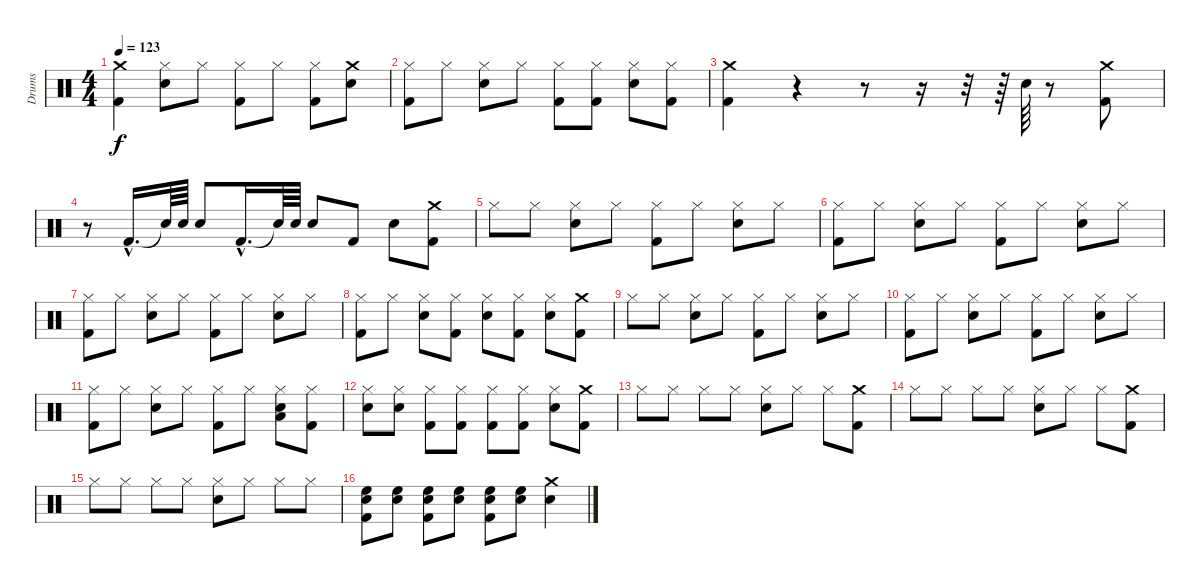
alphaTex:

\track ("Drums" "Drums") {instrument percussion}
\staff {score}
\articulation defaults
\ts (4 4)
\tempo 123
\clef neutral
\ks c
("Kick (hit) 2" "Crash medium (hit)").4{dy f} ("Hi-Hat (closed)" "Snare (hit) 2").8 "Hi-Hat (closed)".8 ("Kick (hit) 2" "Hi-Hat (closed)").8 "Hi-Hat (closed)".8 ("Kick (hit) 2" "Hi-Hat (closed)").8 ("Crash medium (hit)" "Snare (hit) 2").8 |
("Kick (hit) 2" "Hi-Hat (closed)").8 "Hi-Hat (closed)".8 ("Snare (hit) 2" "Hi-Hat (closed)").8 "Hi-Hat (closed)".8 ("Kick (hit) 2" "Hi-Hat (closed)").8 ("Kick (hit) 2" "Hi-Hat (closed)").8 ("Snare (hit) 2" "Hi-Hat (closed)").8 ("Kick (hit) 2" "Hi-Hat (closed)").8 |
("Kick (hit) 2" "Crash medium (hit)").4 r.4 r.8 r.16 r.32 r.64 "Snare (hit) 2".64 r.8 ("Kick (hit) 2" "Crash medium (hit)").8 |
r.8 "Kick (hit) 2"{hac}.16{d} "Snare (hit)"{t}.64 "Snare (hit) 2".64 "Snare (hit) 2".8 "Kick (hit) 2"{hac}.16{d} "Snare (hit)"{t}.64 "Snare (hit) 2".64 "Snare (hit) 2".8 "Kick (hit) 2".8 "Snare (hit) 2".8 ("Crash medium (hit)" "Kick (hit) 2").8 |
"Hi-Hat (closed)".8 "Hi-Hat (closed)".8 ("Snare (hit) 2" "Hi-Hat (closed)").8 "Hi-Hat (closed)".8 ("Kick (hit) 2" "Hi-Hat (closed)").8 "Hi-Hat (closed)".8 ("Snare (hit) 2" "Hi-Hat (closed)").8 "Hi-Hat (closed)".8 |
("Kick (hit) 2" "Hi-Hat (closed)").8 "Hi-Hat (closed)".8 ("Snare (hit) 2" "Hi-Hat (closed)").8 "Hi-Hat (closed)".8 ("Kick (hit) 2" "Hi-Hat (closed)").8 "Hi-Hat (closed)".8 ("Snare (hit) 2" "Hi-Hat (closed)").8 "Hi-Hat (closed)".8 |
("Kick (hit) 2" "Hi-Hat (closed)").8 "Hi-Hat (closed)".8 ("Snare (hit) 2" "Hi-Hat (closed)").8 "Hi-Hat (closed)".8 ("Kick (hit) 2" "Hi-Hat (closed)").8 "Hi-Hat (closed)".8 ("Snare (hit) 2" "Hi-Hat (closed)").8 "Hi-Hat (closed)".8 |
("Hi-Hat (closed)" "Kick (hit) 2").8 "Hi-Hat (closed)".8 ("Snare (hit) 2" "Hi-Hat (closed)").8 ("Kick (hit) 2" "Hi-Hat (closed)").8 ("Snare (hit) 2" "Hi-Hat (closed)").8 ("Hi-Hat (closed)" "Kick (hit) 2").8 ("Snare (hit) 2" "Hi-Hat (closed)").8 ("Crash medium (hit)" "Kick (hit) 2").8 |
"Hi-Hat (closed)".8 "Hi-Hat (closed)".8 ("Snare (hit) 2" "Hi-Hat (closed)").8 "Hi-Hat (closed)".8 ("Kick (hit) 2" "Hi-Hat (closed)").8 "Hi-Hat (closed)".8 ("Snare (hit) 2" "Hi-Hat (closed)").8 "Hi-Hat (closed)".8 |
("Kick (hit) 2" "Hi-Hat (closed)").8 "Hi-Hat (closed)".8 ("Snare (hit) 2" "Hi-Hat (closed)").8 "Hi-Hat (closed)".8 ("Kick (hit) 2" "Hi-Hat (closed)").8 "Hi-Hat (closed)".8 ("Snare (hit) 2" "Hi-Hat (closed)").8 "Hi-Hat (closed)".8 |
("Kick (hit) 2" "Hi-Hat (closed)").8 "Hi-Hat (closed)".8 ("Snare (hit) 2" "Hi-Hat (closed)").8 "Hi-Hat (closed)".8 ("Kick (hit) 2" "Hi-Hat (closed)").8 "Hi-Hat (closed)".8 ("Low Tom (hit)" "Snare (hit) 2" "Hi-Hat (closed)").8 ("Kick (hit) 2" "Hi-Hat (closed)").8 |
("Snare (hit) 2" "Hi-Hat (closed)").8 ("Snare (hit) 2" "Hi-Hat (closed)").8 ("Kick (hit) 2" "Hi-Hat (closed)").8 ("Kick (hit) 2" "Hi-Hat (closed)").8 ("Hi-Hat (closed)" "Kick (hit) 2").8 ("Hi-Hat (closed)" "Kick (hit) 2").8 ("Snare (hit) 2" "Hi-Hat (closed)").8 ("Crash medium (hit)" "Kick (hit) 2").8 |
"Hi-Hat (closed)".8 "Hi-Hat (closed)".8 "Hi-Hat (closed)".8 "Hi-Hat (closed)".8 ("Snare (hit) 2" "Hi-Hat (closed)").8 "Hi-Hat (closed)".8 "Hi-Hat (closed)".8 ("Kick (hit) 2" "Crash medium (hit)").8 |
"Hi-Hat (closed)".8 "Hi-Hat (closed)".8 "Hi-Hat (closed)".8 "Hi-Hat (closed)".8 ("Snare (hit) 2" "Hi-Hat (closed)").8 "Hi-Hat (closed)".8 "Hi-Hat (closed)".8 ("Kick (hit) 2" "Crash medium (hit)").8 |
"Hi-Hat (closed)".8 "Hi-Hat (closed)".8 "Hi-Hat (closed)".8 "Hi-Hat (closed)".8 ("Snare (hit) 2" "Hi-Hat (closed)").8 "Hi-Hat (closed)".8 "Hi-Hat (closed)".8 "Hi-Hat (closed)".8 |
("Kick (hit) 2" "High Floor Tom (hit)" "Snare (hit) 2").8 ("High Floor Tom (hit)" "Snare (hit) 2").8 ("Kick (hit) 2" "High Floor Tom (hit)" "Snare (hit) 2").8 ("High Floor Tom (hit)" "Snare (hit) 2").8 ("Kick (hit) 2" "High Floor Tom (hit)" "Snare (hit) 2").8 ("High Floor Tom (hit)" "Snare (hit) 2").8 ("Crash medium (hit)" "Snare (hit) 2").4
